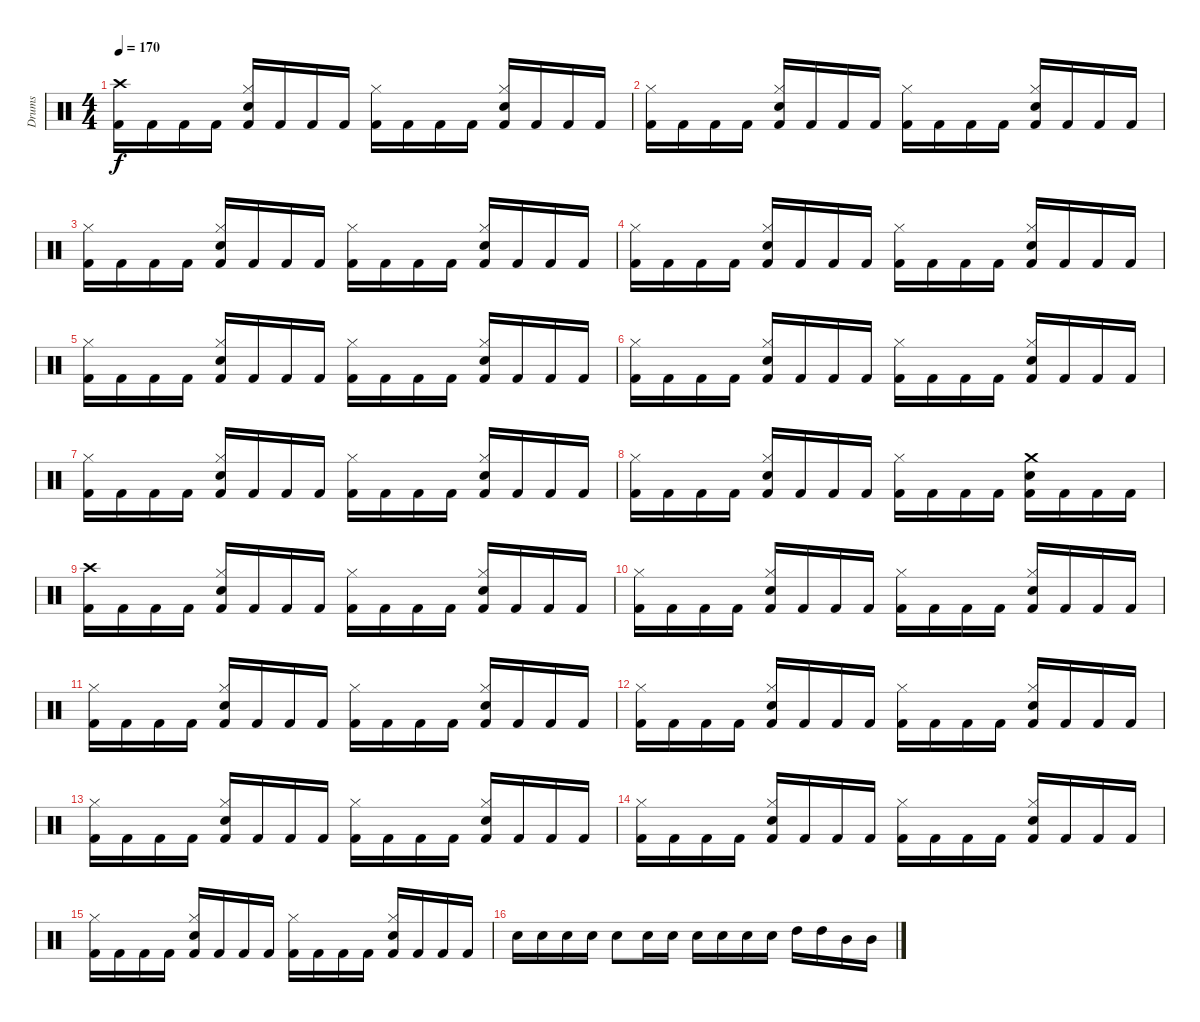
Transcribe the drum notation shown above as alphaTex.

\track ("Drums" "Drums") {instrument percussion}
\staff {score}
\articulation defaults
\ts (4 4)
\tempo 170
\clef neutral
\ks c
("Crash high (hit)" "Kick (hit) 2").16{dy f} "Kick (hit) 2".16 "Kick (hit) 2".16 "Kick (hit) 2".16 ("Hi-Hat (closed)" "Snare (hit) 2" "Kick (hit) 2").16 "Kick (hit) 2".16 "Kick (hit) 2".16 "Kick (hit) 2".16 ("Hi-Hat (closed)" "Kick (hit) 2").16 "Kick (hit) 2".16 "Kick (hit) 2".16 "Kick (hit) 2".16 ("Hi-Hat (closed)" "Snare (hit) 2" "Kick (hit) 2").16 "Kick (hit) 2".16 "Kick (hit) 2".16 "Kick (hit) 2".16 |
("Hi-Hat (closed)" "Kick (hit) 2").16 "Kick (hit) 2".16 "Kick (hit) 2".16 "Kick (hit) 2".16 ("Hi-Hat (closed)" "Snare (hit) 2" "Kick (hit) 2").16 "Kick (hit) 2".16 "Kick (hit) 2".16 "Kick (hit) 2".16 ("Hi-Hat (closed)" "Kick (hit) 2").16 "Kick (hit) 2".16 "Kick (hit) 2".16 "Kick (hit) 2".16 ("Hi-Hat (closed)" "Snare (hit) 2" "Kick (hit) 2").16 "Kick (hit) 2".16 "Kick (hit) 2".16 "Kick (hit) 2".16 |
("Hi-Hat (closed)" "Kick (hit) 2").16 "Kick (hit) 2".16 "Kick (hit) 2".16 "Kick (hit) 2".16 ("Hi-Hat (closed)" "Snare (hit) 2" "Kick (hit) 2").16 "Kick (hit) 2".16 "Kick (hit) 2".16 "Kick (hit) 2".16 ("Hi-Hat (closed)" "Kick (hit) 2").16 "Kick (hit) 2".16 "Kick (hit) 2".16 "Kick (hit) 2".16 ("Hi-Hat (closed)" "Snare (hit) 2" "Kick (hit) 2").16 "Kick (hit) 2".16 "Kick (hit) 2".16 "Kick (hit) 2".16 |
("Hi-Hat (closed)" "Kick (hit) 2").16 "Kick (hit) 2".16 "Kick (hit) 2".16 "Kick (hit) 2".16 ("Hi-Hat (closed)" "Snare (hit) 2" "Kick (hit) 2").16 "Kick (hit) 2".16 "Kick (hit) 2".16 "Kick (hit) 2".16 ("Hi-Hat (closed)" "Kick (hit) 2").16 "Kick (hit) 2".16 "Kick (hit) 2".16 "Kick (hit) 2".16 ("Hi-Hat (closed)" "Snare (hit) 2" "Kick (hit) 2").16 "Kick (hit) 2".16 "Kick (hit) 2".16 "Kick (hit) 2".16 |
("Hi-Hat (closed)" "Kick (hit) 2").16 "Kick (hit) 2".16 "Kick (hit) 2".16 "Kick (hit) 2".16 ("Hi-Hat (closed)" "Snare (hit) 2" "Kick (hit) 2").16 "Kick (hit) 2".16 "Kick (hit) 2".16 "Kick (hit) 2".16 ("Hi-Hat (closed)" "Kick (hit) 2").16 "Kick (hit) 2".16 "Kick (hit) 2".16 "Kick (hit) 2".16 ("Hi-Hat (closed)" "Snare (hit) 2" "Kick (hit) 2").16 "Kick (hit) 2".16 "Kick (hit) 2".16 "Kick (hit) 2".16 |
("Hi-Hat (closed)" "Kick (hit) 2").16 "Kick (hit) 2".16 "Kick (hit) 2".16 "Kick (hit) 2".16 ("Hi-Hat (closed)" "Snare (hit) 2" "Kick (hit) 2").16 "Kick (hit) 2".16 "Kick (hit) 2".16 "Kick (hit) 2".16 ("Hi-Hat (closed)" "Kick (hit) 2").16 "Kick (hit) 2".16 "Kick (hit) 2".16 "Kick (hit) 2".16 ("Hi-Hat (closed)" "Snare (hit) 2" "Kick (hit) 2").16 "Kick (hit) 2".16 "Kick (hit) 2".16 "Kick (hit) 2".16 |
("Hi-Hat (closed)" "Kick (hit) 2").16 "Kick (hit) 2".16 "Kick (hit) 2".16 "Kick (hit) 2".16 ("Hi-Hat (closed)" "Snare (hit) 2" "Kick (hit) 2").16 "Kick (hit) 2".16 "Kick (hit) 2".16 "Kick (hit) 2".16 ("Hi-Hat (closed)" "Kick (hit) 2").16 "Kick (hit) 2".16 "Kick (hit) 2".16 "Kick (hit) 2".16 ("Hi-Hat (closed)" "Snare (hit) 2" "Kick (hit) 2").16 "Kick (hit) 2".16 "Kick (hit) 2".16 "Kick (hit) 2".16 |
("Hi-Hat (closed)" "Kick (hit) 2").16 "Kick (hit) 2".16 "Kick (hit) 2".16 "Kick (hit) 2".16 ("Hi-Hat (closed)" "Snare (hit) 2" "Kick (hit) 2").16 "Kick (hit) 2".16 "Kick (hit) 2".16 "Kick (hit) 2".16 ("Hi-Hat (closed)" "Kick (hit) 2").16 "Kick (hit) 2".16 "Kick (hit) 2".16 "Kick (hit) 2".16 ("Crash medium (hit)" "Snare (hit) 2" "Kick (hit) 2").16 "Kick (hit) 2".16 "Kick (hit) 2".16 "Kick (hit) 2".16 |
("Crash high (hit)" "Kick (hit) 2").16 "Kick (hit) 2".16 "Kick (hit) 2".16 "Kick (hit) 2".16 ("Hi-Hat (closed)" "Snare (hit) 2" "Kick (hit) 2").16 "Kick (hit) 2".16 "Kick (hit) 2".16 "Kick (hit) 2".16 ("Hi-Hat (closed)" "Kick (hit) 2").16 "Kick (hit) 2".16 "Kick (hit) 2".16 "Kick (hit) 2".16 ("Hi-Hat (closed)" "Snare (hit) 2" "Kick (hit) 2").16 "Kick (hit) 2".16 "Kick (hit) 2".16 "Kick (hit) 2".16 |
("Hi-Hat (closed)" "Kick (hit) 2").16 "Kick (hit) 2".16 "Kick (hit) 2".16 "Kick (hit) 2".16 ("Hi-Hat (closed)" "Snare (hit) 2" "Kick (hit) 2").16 "Kick (hit) 2".16 "Kick (hit) 2".16 "Kick (hit) 2".16 ("Hi-Hat (closed)" "Kick (hit) 2").16 "Kick (hit) 2".16 "Kick (hit) 2".16 "Kick (hit) 2".16 ("Hi-Hat (closed)" "Snare (hit) 2" "Kick (hit) 2").16 "Kick (hit) 2".16 "Kick (hit) 2".16 "Kick (hit) 2".16 |
("Hi-Hat (closed)" "Kick (hit) 2").16 "Kick (hit) 2".16 "Kick (hit) 2".16 "Kick (hit) 2".16 ("Hi-Hat (closed)" "Snare (hit) 2" "Kick (hit) 2").16 "Kick (hit) 2".16 "Kick (hit) 2".16 "Kick (hit) 2".16 ("Hi-Hat (closed)" "Kick (hit) 2").16 "Kick (hit) 2".16 "Kick (hit) 2".16 "Kick (hit) 2".16 ("Hi-Hat (closed)" "Snare (hit) 2" "Kick (hit) 2").16 "Kick (hit) 2".16 "Kick (hit) 2".16 "Kick (hit) 2".16 |
("Hi-Hat (closed)" "Kick (hit) 2").16 "Kick (hit) 2".16 "Kick (hit) 2".16 "Kick (hit) 2".16 ("Hi-Hat (closed)" "Snare (hit) 2" "Kick (hit) 2").16 "Kick (hit) 2".16 "Kick (hit) 2".16 "Kick (hit) 2".16 ("Hi-Hat (closed)" "Kick (hit) 2").16 "Kick (hit) 2".16 "Kick (hit) 2".16 "Kick (hit) 2".16 ("Hi-Hat (closed)" "Snare (hit) 2" "Kick (hit) 2").16 "Kick (hit) 2".16 "Kick (hit) 2".16 "Kick (hit) 2".16 |
("Hi-Hat (closed)" "Kick (hit) 2").16 "Kick (hit) 2".16 "Kick (hit) 2".16 "Kick (hit) 2".16 ("Hi-Hat (closed)" "Snare (hit) 2" "Kick (hit) 2").16 "Kick (hit) 2".16 "Kick (hit) 2".16 "Kick (hit) 2".16 ("Hi-Hat (closed)" "Kick (hit) 2").16 "Kick (hit) 2".16 "Kick (hit) 2".16 "Kick (hit) 2".16 ("Hi-Hat (closed)" "Snare (hit) 2" "Kick (hit) 2").16 "Kick (hit) 2".16 "Kick (hit) 2".16 "Kick (hit) 2".16 |
("Hi-Hat (closed)" "Kick (hit) 2").16 "Kick (hit) 2".16 "Kick (hit) 2".16 "Kick (hit) 2".16 ("Hi-Hat (closed)" "Snare (hit) 2" "Kick (hit) 2").16 "Kick (hit) 2".16 "Kick (hit) 2".16 "Kick (hit) 2".16 ("Hi-Hat (closed)" "Kick (hit) 2").16 "Kick (hit) 2".16 "Kick (hit) 2".16 "Kick (hit) 2".16 ("Hi-Hat (closed)" "Snare (hit) 2" "Kick (hit) 2").16 "Kick (hit) 2".16 "Kick (hit) 2".16 "Kick (hit) 2".16 |
("Hi-Hat (closed)" "Kick (hit) 2").16 "Kick (hit) 2".16 "Kick (hit) 2".16 "Kick (hit) 2".16 ("Hi-Hat (closed)" "Snare (hit) 2" "Kick (hit) 2").16 "Kick (hit) 2".16 "Kick (hit) 2".16 "Kick (hit) 2".16 ("Hi-Hat (closed)" "Kick (hit) 2").16 "Kick (hit) 2".16 "Kick (hit) 2".16 "Kick (hit) 2".16 ("Hi-Hat (closed)" "Snare (hit) 2" "Kick (hit) 2").16 "Kick (hit) 2".16 "Kick (hit) 2".16 "Kick (hit) 2".16 |
"Snare (hit) 2".16 "Snare (hit) 2".16 "Snare (hit) 2".16 "Snare (hit) 2".16 "Snare (hit) 2".8 "Snare (hit) 2".16 "Snare (hit) 2".16 "Snare (hit) 2".16 "Snare (hit) 2".16 "Snare (hit) 2".16 "Snare (hit) 2".16 "High Tom (hit)".16 "High Tom (hit)".16 "Mid Tom (hit)".16 "Mid Tom (hit)".16
